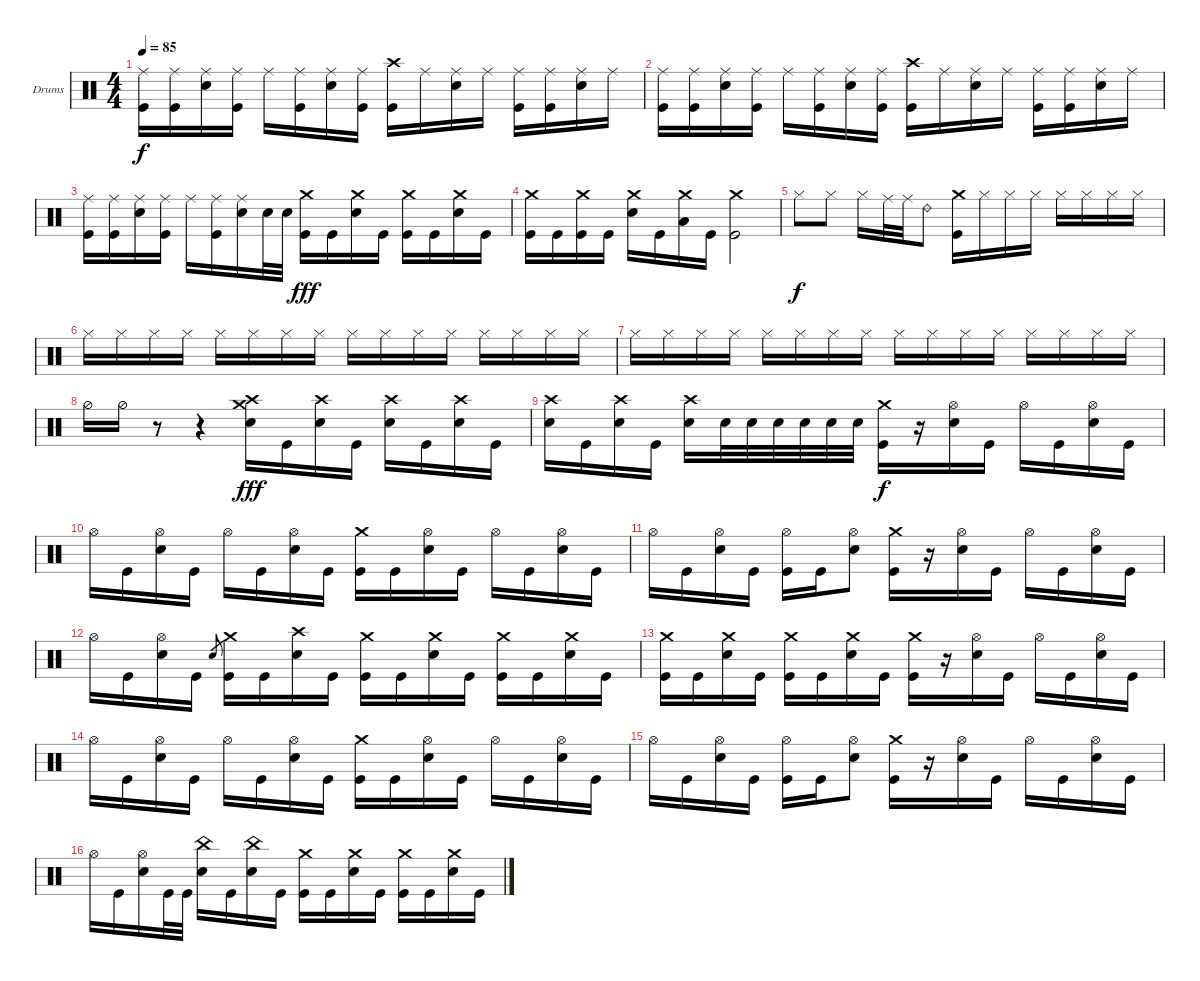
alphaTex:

\defaultSystemsLayout 4
\bracketExtendMode groupsimilarinstruments
\firstSystemTrackNameOrientation horizontal
\otherSystemsTrackNameOrientation horizontal
\track ("Drumkit" "Drums") {instrument percussion}
\staff {score}
\articulation defaults
\ts (4 4)
\tempo 85
\clef neutral
\ks c
("Ride (middle)" "Kick (hit)").16{dy f} ("Ride (middle)" "Kick (hit)").16 ("Ride (middle)" "Snare (hit) 2").16 ("Ride (middle)" "Kick (hit)").16 "Ride (middle)".16 ("Ride (middle)" "Kick (hit)").16 ("Ride (middle)" "Snare (hit) 2").16 ("Ride (middle)" "Kick (hit)").16 ("Kick (hit)" "Crash high (hit)").16 "Ride (middle)".16 ("Ride (middle)" "Snare (hit) 2").16 "Ride (middle)".16 ("Ride (middle)" "Kick (hit)").16 ("Ride (middle)" "Kick (hit)").16 ("Ride (middle)" "Snare (hit) 2").16 "Ride (middle)".16 |
("Ride (middle)" "Kick (hit)").16 ("Ride (middle)" "Kick (hit)").16 ("Ride (middle)" "Snare (hit) 2").16 ("Ride (middle)" "Kick (hit)").16 "Ride (middle)".16 ("Ride (middle)" "Kick (hit)").16 ("Ride (middle)" "Snare (hit) 2").16 ("Ride (middle)" "Kick (hit)").16 ("Kick (hit)" "Crash high (hit)").16 "Ride (middle)".16 ("Ride (middle)" "Snare (hit) 2").16 "Ride (middle)".16 ("Ride (middle)" "Kick (hit)").16 ("Ride (middle)" "Kick (hit)").16 ("Ride (middle)" "Snare (hit) 2").16 "Ride (middle)".16 |
("Ride (middle)" "Kick (hit)").16 ("Ride (middle)" "Kick (hit)").16 ("Ride (middle)" "Snare (hit) 2").16 ("Ride (middle)" "Kick (hit)").16 "Ride (middle)".16 ("Ride (middle)" "Kick (hit)").16 ("Ride (middle)" "Snare (hit) 2").16 "Snare (hit) 2".32 "Snare (hit) 2".32 ("Kick (hit)" "Crash medium (hit)").16{dy fff} "Kick (hit)".16 ("Snare (hit) 2" "Crash medium (hit)").16 "Kick (hit)".16 ("Kick (hit)" "Crash medium (hit)").16 "Kick (hit)".16 ("Snare (hit) 2" "Crash medium (hit)").16 "Kick (hit)".16 |
("Kick (hit)" "Crash medium (hit)").16 "Kick (hit)".16 ("Crash medium (hit)" "Kick (hit)").16 "Kick (hit)".16 ("Crash medium (hit)" "Snare (hit) 2").16 "Kick (hit)".16 ("Crash medium (hit)" "Low Tom (hit)").16 "Kick (hit)".16 ("Kick (hit)" "Crash medium (hit)").2 |
"Hi-Hat (closed)".8{dy f} "Hi-Hat (closed)".8 "Hi-Hat (closed)".16 "Ride (middle)".32 "Ride (middle)".32 "Ride (bell) 2".8 ("Kick (hit)" "Crash medium (hit)").16 "Hi-Hat (closed)".16 "Hi-Hat (closed)".16 "Hi-Hat (closed)".16 "Hi-Hat (closed)".16 "Hi-Hat (closed)".16 "Hi-Hat (closed)".16 "Hi-Hat (closed)".16 |
"Hi-Hat (closed)".16 "Hi-Hat (closed)".16 "Hi-Hat (closed)".16 "Hi-Hat (closed)".16 "Hi-Hat (closed)".16 "Hi-Hat (closed)".16 "Hi-Hat (closed)".16 "Hi-Hat (closed)".16 "Hi-Hat (closed)".16 "Hi-Hat (closed)".16 "Hi-Hat (closed)".16 "Hi-Hat (closed)".16 "Hi-Hat (closed)".16 "Hi-Hat (closed)".16 "Hi-Hat (closed)".16 "Hi-Hat (closed)".16 |
"Hi-Hat (closed)".16 "Hi-Hat (closed)".16 "Hi-Hat (closed)".16 "Hi-Hat (closed)".16 "Hi-Hat (closed)".16 "Hi-Hat (closed)".16 "Hi-Hat (closed)".16 "Hi-Hat (closed)".16 "Hi-Hat (closed)".16 "Hi-Hat (closed)".16 "Hi-Hat (closed)".16 "Hi-Hat (closed)".16 "Hi-Hat (closed)".16 "Hi-Hat (closed)".16 "Hi-Hat (closed)".16 "Hi-Hat (closed)".16 |
"Hi-Hat (half)".16 "Hi-Hat (half)".16 r.8 r.4 ("Snare (hit) 2" "Crash medium (hit)" "Crash high (hit)").16{dy fff} "Kick (hit)".16 ("Snare (hit) 2" "Crash high (hit)").16 "Kick (hit)".16 ("Snare (hit) 2" "Crash high (hit)").16 "Kick (hit)".16 ("Snare (hit) 2" "Crash high (hit)").16 "Kick (hit)".16 |
("Snare (hit) 2" "Crash high (hit)").16 "Kick (hit)".16 ("Snare (hit) 2" "Crash high (hit)").16 "Kick (hit)".16 ("Snare (hit) 2" "Crash high (hit)").16 "Snare (hit) 2".32 "Snare (hit) 2".32 "Snare (hit) 2".32 "Snare (hit) 2".32 "Snare (hit) 2".32 "Snare (hit) 2".32 ("Kick (hit)" "Crash medium (hit)").16{dy f} r.16 ("Snare (hit) 2" "Hi-Hat (open)").16 "Kick (hit)".16 "Hi-Hat (open)".16 "Kick (hit)".16 ("Snare (hit) 2" "Hi-Hat (open)").16 "Kick (hit)".16 |
"Hi-Hat (open)".16 "Kick (hit)".16 ("Snare (hit) 2" "Hi-Hat (open)").16 "Kick (hit)".16 "Hi-Hat (open)".16 "Kick (hit)".16 ("Snare (hit) 2" "Hi-Hat (open)").16 "Kick (hit)".16 ("Kick (hit)" "Crash medium (hit)").16 "Kick (hit)".16 ("Snare (hit) 2" "Hi-Hat (open)").16 "Kick (hit)".16 "Hi-Hat (open)".16 "Kick (hit)".16 ("Snare (hit) 2" "Hi-Hat (open)").16 "Kick (hit)".16 |
"Hi-Hat (open)".16 "Kick (hit)".16 ("Snare (hit) 2" "Hi-Hat (open)").16 "Kick (hit)".16 ("Hi-Hat (open)" "Kick (hit)").16 "Kick (hit)".16 ("Snare (hit) 2" "Hi-Hat (open)").8 ("Kick (hit)" "Crash medium (hit)").16 r.16 ("Snare (hit) 2" "Hi-Hat (open)").16 "Kick (hit)".16 "Hi-Hat (open)".16 "Kick (hit)".16 ("Snare (hit) 2" "Hi-Hat (open)").16 "Kick (hit)".16 |
"Hi-Hat (open)".16 "Kick (hit)".16 ("Snare (hit) 2" "Hi-Hat (open)").16 "Kick (hit)".16 "Snare (hit) 2".8{gr} ("Kick (hit)" "Crash medium (hit)").16 "Kick (hit)".16 ("Snare (hit) 2" "Crash high (hit)").16 "Kick (hit)".16 ("Kick (hit)" "Crash medium (hit)").16 "Kick (hit)".16 ("Snare (hit) 2" "Crash medium (hit)").16 "Kick (hit)".16 ("Kick (hit)" "Crash medium (hit)").16 "Kick (hit)".16 ("Snare (hit) 2" "Crash medium (hit)").16 "Kick (hit)".16 |
("Kick (hit)" "Crash medium (hit)").16 "Kick (hit)".16 ("Snare (hit) 2" "Crash medium (hit)").16 "Kick (hit)".16 ("Kick (hit)" "Crash medium (hit)").16 "Kick (hit)".16 ("Snare (hit) 2" "Crash medium (hit)").16 "Kick (hit)".16 ("Kick (hit)" "Crash medium (hit)").16 r.16 ("Snare (hit) 2" "Hi-Hat (open)").16 "Kick (hit)".16 "Hi-Hat (open)".16 "Kick (hit)".16 ("Snare (hit) 2" "Hi-Hat (open)").16 "Kick (hit)".16 |
"Hi-Hat (open)".16 "Kick (hit)".16 ("Snare (hit) 2" "Hi-Hat (open)").16 "Kick (hit)".16 "Hi-Hat (open)".16 "Kick (hit)".16 ("Snare (hit) 2" "Hi-Hat (open)").16 "Kick (hit)".16 ("Kick (hit)" "Crash medium (hit)").16 "Kick (hit)".16 ("Snare (hit) 2" "Hi-Hat (open)").16 "Kick (hit)".16 "Hi-Hat (open)".16 "Kick (hit)".16 ("Snare (hit) 2" "Hi-Hat (open)").16 "Kick (hit)".16 |
"Hi-Hat (open)".16 "Kick (hit)".16 ("Snare (hit) 2" "Hi-Hat (open)").16 "Kick (hit)".16 ("Hi-Hat (open)" "Kick (hit)").16 "Kick (hit)".16 ("Snare (hit) 2" "Hi-Hat (open)").8 ("Kick (hit)" "Crash medium (hit)").16 r.16 ("Snare (hit) 2" "Hi-Hat (open)").16 "Kick (hit)".16 "Hi-Hat (open)".16 "Kick (hit)".16 ("Snare (hit) 2" "Hi-Hat (open)").16 "Kick (hit)".16 |
"Hi-Hat (open)".16 "Kick (hit)".16 ("Snare (hit) 2" "Hi-Hat (open)").16 "Kick (hit)".32 "Kick (hit)".32 ("Snare (hit) 2" "China (hit)").16 "Kick (hit)".16 ("Snare (hit) 2" "China (hit)").16 "Kick (hit)".16 ("Kick (hit)" "Crash medium (hit)").16 "Kick (hit)".16 ("Snare (hit) 2" "Crash medium (hit)").16 "Kick (hit)".16 ("Kick (hit)" "Crash medium (hit)").16 "Kick (hit)".16 ("Snare (hit) 2" "Crash medium (hit)").16 "Kick (hit)".16
